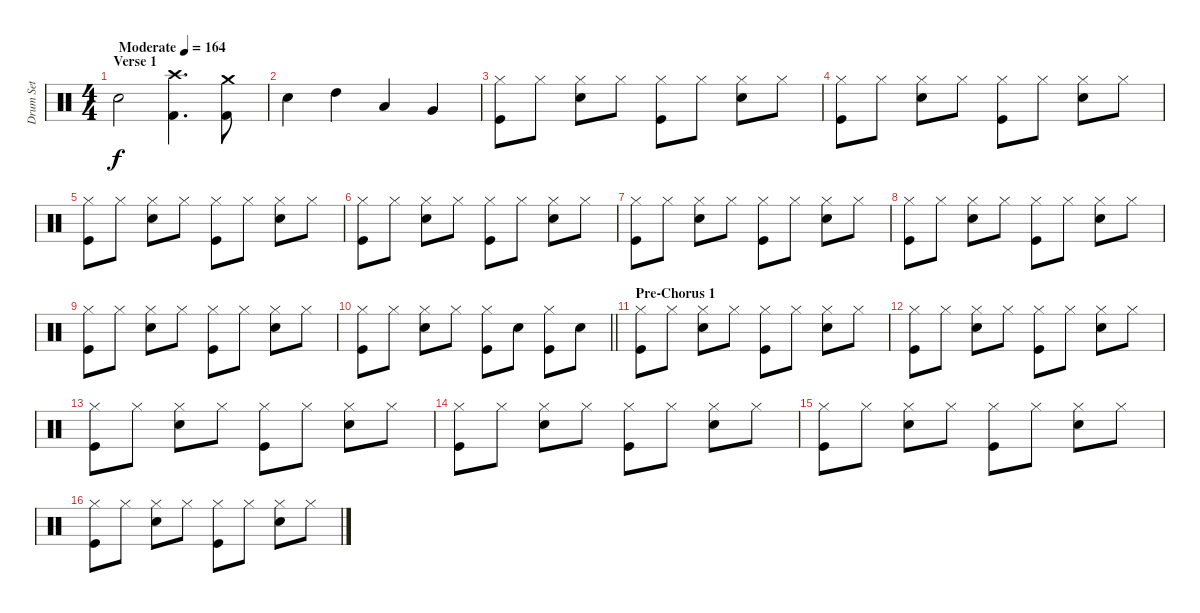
\track ("Drum Set" "Drum Set") {instrument percussion}
\staff {score}
\articulation defaults
\ts (4 4)
\section ("" "Verse 1")
\tempo (164 "Moderate")
\clef neutral
\ks c "Electric Snare (hit)".2{dy f}
("Crash high (hit)" "Kick (hit) 2").4{d} ("Crash medium (hit)" "Kick (hit) 2").8 |
"Electric Snare (hit)".4 "High Tom (hit)".4 "Low Tom (hit)".4 "Very Low Tom (hit)".4 |
("Kick (hit)" "Hi-Hat (closed)").8 "Hi-Hat (closed)".8 ("Electric Snare (hit)" "Hi-Hat (closed)").8 "Hi-Hat (closed)".8 ("Kick (hit)" "Hi-Hat (closed)").8 "Hi-Hat (closed)".8 ("Electric Snare (hit)" "Hi-Hat (closed)").8 "Hi-Hat (closed)".8 |
("Kick (hit)" "Hi-Hat (closed)").8 "Hi-Hat (closed)".8 ("Electric Snare (hit)" "Hi-Hat (closed)").8 "Hi-Hat (closed)".8 ("Kick (hit)" "Hi-Hat (closed)").8 "Hi-Hat (closed)".8 ("Electric Snare (hit)" "Hi-Hat (closed)").8 "Hi-Hat (closed)".8 |
("Kick (hit)" "Hi-Hat (closed)").8 "Hi-Hat (closed)".8 ("Electric Snare (hit)" "Hi-Hat (closed)").8 "Hi-Hat (closed)".8 ("Kick (hit)" "Hi-Hat (closed)").8 "Hi-Hat (closed)".8 ("Electric Snare (hit)" "Hi-Hat (closed)").8 "Hi-Hat (closed)".8 |
("Kick (hit)" "Hi-Hat (closed)").8 "Hi-Hat (closed)".8 ("Electric Snare (hit)" "Hi-Hat (closed)").8 "Hi-Hat (closed)".8 ("Kick (hit)" "Hi-Hat (closed)").8 "Hi-Hat (closed)".8 ("Electric Snare (hit)" "Hi-Hat (closed)").8 "Hi-Hat (closed)".8 |
("Kick (hit)" "Hi-Hat (closed)").8 "Hi-Hat (closed)".8 ("Electric Snare (hit)" "Hi-Hat (closed)").8 "Hi-Hat (closed)".8 ("Kick (hit)" "Hi-Hat (closed)").8 "Hi-Hat (closed)".8 ("Electric Snare (hit)" "Hi-Hat (closed)").8 "Hi-Hat (closed)".8 |
("Kick (hit)" "Hi-Hat (closed)").8 "Hi-Hat (closed)".8 ("Electric Snare (hit)" "Hi-Hat (closed)").8 "Hi-Hat (closed)".8 ("Kick (hit)" "Hi-Hat (closed)").8 "Hi-Hat (closed)".8 ("Electric Snare (hit)" "Hi-Hat (closed)").8 "Hi-Hat (closed)".8 |
("Kick (hit)" "Hi-Hat (closed)").8 "Hi-Hat (closed)".8 ("Electric Snare (hit)" "Hi-Hat (closed)").8 "Hi-Hat (closed)".8 ("Kick (hit)" "Hi-Hat (closed)").8 "Hi-Hat (closed)".8 ("Electric Snare (hit)" "Hi-Hat (closed)").8 "Hi-Hat (closed)".8 |
\barLineRight lightlight
("Kick (hit)" "Hi-Hat (closed)").8 "Hi-Hat (closed)".8 ("Electric Snare (hit)" "Hi-Hat (closed)").8 "Hi-Hat (closed)".8 ("Kick (hit)" "Hi-Hat (closed)").8 "Electric Snare (hit)".8 ("Kick (hit)" "Hi-Hat (closed)").8 "Electric Snare (hit)".8 |
\section ("" "Pre-Chorus 1")
("Kick (hit)" "Hi-Hat (closed)").8 "Hi-Hat (closed)".8 ("Electric Snare (hit)" "Hi-Hat (closed)").8 "Hi-Hat (closed)".8 ("Kick (hit)" "Hi-Hat (closed)").8 "Hi-Hat (closed)".8 ("Electric Snare (hit)" "Hi-Hat (closed)").8 "Hi-Hat (closed)".8 |
("Kick (hit)" "Hi-Hat (closed)").8 "Hi-Hat (closed)".8 ("Electric Snare (hit)" "Hi-Hat (closed)").8 "Hi-Hat (closed)".8 ("Kick (hit)" "Hi-Hat (closed)").8 "Hi-Hat (closed)".8 ("Electric Snare (hit)" "Hi-Hat (closed)").8 "Hi-Hat (closed)".8 |
("Kick (hit)" "Hi-Hat (closed)").8 "Hi-Hat (closed)".8 ("Electric Snare (hit)" "Hi-Hat (closed)").8 "Hi-Hat (closed)".8 ("Kick (hit)" "Hi-Hat (closed)").8 "Hi-Hat (closed)".8 ("Electric Snare (hit)" "Hi-Hat (closed)").8 "Hi-Hat (closed)".8 |
("Kick (hit)" "Hi-Hat (closed)").8 "Hi-Hat (closed)".8 ("Electric Snare (hit)" "Hi-Hat (closed)").8 "Hi-Hat (closed)".8 ("Kick (hit)" "Hi-Hat (closed)").8 "Hi-Hat (closed)".8 ("Electric Snare (hit)" "Hi-Hat (closed)").8 "Hi-Hat (closed)".8 |
("Kick (hit)" "Hi-Hat (closed)").8 "Hi-Hat (closed)".8 ("Electric Snare (hit)" "Hi-Hat (closed)").8 "Hi-Hat (closed)".8 ("Kick (hit)" "Hi-Hat (closed)").8 "Hi-Hat (closed)".8 ("Electric Snare (hit)" "Hi-Hat (closed)").8 "Hi-Hat (closed)".8 |
("Kick (hit)" "Hi-Hat (closed)").8 "Hi-Hat (closed)".8 ("Electric Snare (hit)" "Hi-Hat (closed)").8 "Hi-Hat (closed)".8 ("Kick (hit)" "Hi-Hat (closed)").8 "Hi-Hat (closed)".8 ("Electric Snare (hit)" "Hi-Hat (closed)").8 "Hi-Hat (closed)".8
